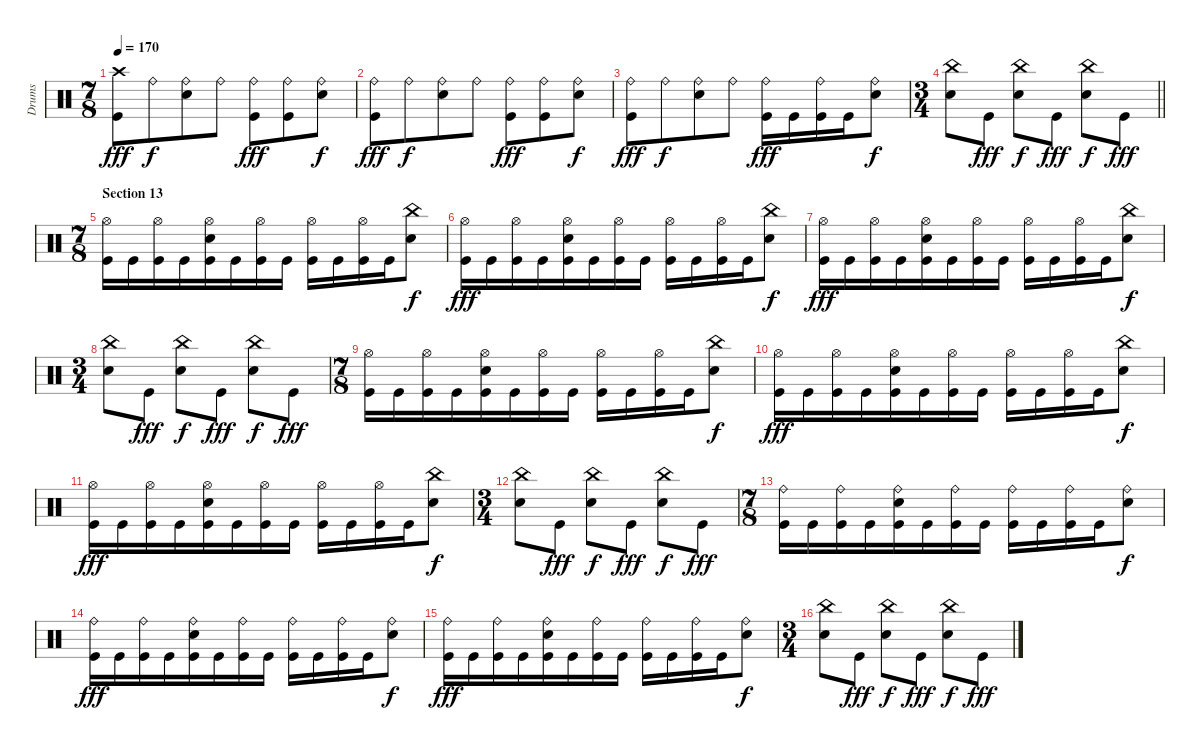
\track ("Drums" "Drums") {instrument percussion}
\staff {score}
\articulation defaults
\ts (7 8)
\tempo 170
\clef neutral
\ks c
("Crash high (hit)" "Kick (hit)").8{dy fff} "Ride (bell)".8{dy f} ("Ride (bell)" "Snare (hit) 2").8 "Ride (bell)".8 ("Ride (bell)" "Kick (hit)").8{dy fff} ("Ride (bell)" "Kick (hit)").8 ("Ride (bell)" "Snare (hit) 2").8{dy f} |
("Ride (bell)" "Kick (hit)").8{dy fff} "Ride (bell)".8{dy f} ("Ride (bell)" "Snare (hit) 2").8 "Ride (bell)".8 ("Ride (bell)" "Kick (hit)").8{dy fff} ("Ride (bell)" "Kick (hit)").8 ("Ride (bell)" "Snare (hit) 2").8{dy f} |
("Ride (bell)" "Kick (hit)").8{dy fff} "Ride (bell)".8{dy f} ("Ride (bell)" "Snare (hit) 2").8 "Ride (bell)".8 ("Ride (bell)" "Kick (hit)").16{dy fff} "Kick (hit)".16 ("Ride (bell)" "Kick (hit)").16 "Kick (hit)".16 ("Ride (bell)" "Snare (hit) 2").8{dy f} |
\ts (3 4)
\barLineRight lightlight
("China (hit)" "Snare (hit) 2").8 "Kick (hit)".8{dy fff} ("China (hit)" "Snare (hit) 2").8{dy f} "Kick (hit)".8{dy fff} ("China (hit)" "Snare (hit) 2").8{dy f} "Kick (hit)".8{dy fff} |
\ts (7 8)
\section ("" "Section 13")
("Hi-Hat (open)" "Kick (hit)").16 "Kick (hit)".16 ("Hi-Hat (open)" "Kick (hit)").16 "Kick (hit)".16 ("Hi-Hat (open)" "Snare (hit) 2" "Kick (hit)").16 "Kick (hit)".16 ("Hi-Hat (open)" "Kick (hit)").16 "Kick (hit)".16 ("Hi-Hat (open)" "Kick (hit)").16 "Kick (hit)".16 ("Hi-Hat (open)" "Kick (hit)").16 "Kick (hit)".16 ("China (hit)" "Snare (hit) 2").8{dy f} |
("Hi-Hat (open)" "Kick (hit)").16{dy fff} "Kick (hit)".16 ("Hi-Hat (open)" "Kick (hit)").16 "Kick (hit)".16 ("Hi-Hat (open)" "Snare (hit) 2" "Kick (hit)").16 "Kick (hit)".16 ("Hi-Hat (open)" "Kick (hit)").16 "Kick (hit)".16 ("Hi-Hat (open)" "Kick (hit)").16 "Kick (hit)".16 ("Hi-Hat (open)" "Kick (hit)").16 "Kick (hit)".16 ("China (hit)" "Snare (hit) 2").8{dy f} |
("Hi-Hat (open)" "Kick (hit)").16{dy fff} "Kick (hit)".16 ("Hi-Hat (open)" "Kick (hit)").16 "Kick (hit)".16 ("Hi-Hat (open)" "Snare (hit) 2" "Kick (hit)").16 "Kick (hit)".16 ("Hi-Hat (open)" "Kick (hit)").16 "Kick (hit)".16 ("Hi-Hat (open)" "Kick (hit)").16 "Kick (hit)".16 ("Hi-Hat (open)" "Kick (hit)").16 "Kick (hit)".16 ("China (hit)" "Snare (hit) 2").8{dy f} |
\ts (3 4)
("China (hit)" "Snare (hit) 2").8 "Kick (hit)".8{dy fff} ("China (hit)" "Snare (hit) 2").8{dy f} "Kick (hit)".8{dy fff} ("China (hit)" "Snare (hit) 2").8{dy f} "Kick (hit)".8{dy fff} |
\ts (7 8)
("Hi-Hat (open)" "Kick (hit)").16 "Kick (hit)".16 ("Hi-Hat (open)" "Kick (hit)").16 "Kick (hit)".16 ("Hi-Hat (open)" "Snare (hit) 2" "Kick (hit)").16 "Kick (hit)".16 ("Hi-Hat (open)" "Kick (hit)").16 "Kick (hit)".16 ("Hi-Hat (open)" "Kick (hit)").16 "Kick (hit)".16 ("Hi-Hat (open)" "Kick (hit)").16 "Kick (hit)".16 ("China (hit)" "Snare (hit) 2").8{dy f} |
("Hi-Hat (open)" "Kick (hit)").16{dy fff} "Kick (hit)".16 ("Hi-Hat (open)" "Kick (hit)").16 "Kick (hit)".16 ("Hi-Hat (open)" "Snare (hit) 2" "Kick (hit)").16 "Kick (hit)".16 ("Hi-Hat (open)" "Kick (hit)").16 "Kick (hit)".16 ("Hi-Hat (open)" "Kick (hit)").16 "Kick (hit)".16 ("Hi-Hat (open)" "Kick (hit)").16 "Kick (hit)".16 ("China (hit)" "Snare (hit) 2").8{dy f} |
("Hi-Hat (open)" "Kick (hit)").16{dy fff} "Kick (hit)".16 ("Hi-Hat (open)" "Kick (hit)").16 "Kick (hit)".16 ("Hi-Hat (open)" "Snare (hit) 2" "Kick (hit)").16 "Kick (hit)".16 ("Hi-Hat (open)" "Kick (hit)").16 "Kick (hit)".16 ("Hi-Hat (open)" "Kick (hit)").16 "Kick (hit)".16 ("Hi-Hat (open)" "Kick (hit)").16 "Kick (hit)".16 ("China (hit)" "Snare (hit) 2").8{dy f} |
\ts (3 4)
("China (hit)" "Snare (hit) 2").8 "Kick (hit)".8{dy fff} ("China (hit)" "Snare (hit) 2").8{dy f} "Kick (hit)".8{dy fff} ("China (hit)" "Snare (hit) 2").8{dy f} "Kick (hit)".8{dy fff} |
\ts (7 8)
("Ride (bell)" "Kick (hit)").16 "Kick (hit)".16 ("Ride (bell)" "Kick (hit)").16 "Kick (hit)".16 ("Ride (bell)" "Snare (hit) 2" "Kick (hit)").16 "Kick (hit)".16 ("Ride (bell)" "Kick (hit)").16 "Kick (hit)".16 ("Ride (bell)" "Kick (hit)").16 "Kick (hit)".16 ("Ride (bell)" "Kick (hit)").16 "Kick (hit)".16 ("Ride (bell)" "Snare (hit) 2").8{dy f} |
("Ride (bell)" "Kick (hit)").16{dy fff} "Kick (hit)".16 ("Ride (bell)" "Kick (hit)").16 "Kick (hit)".16 ("Ride (bell)" "Snare (hit) 2" "Kick (hit)").16 "Kick (hit)".16 ("Ride (bell)" "Kick (hit)").16 "Kick (hit)".16 ("Ride (bell)" "Kick (hit)").16 "Kick (hit)".16 ("Ride (bell)" "Kick (hit)").16 "Kick (hit)".16 ("Ride (bell)" "Snare (hit) 2").8{dy f} |
("Ride (bell)" "Kick (hit)").16{dy fff} "Kick (hit)".16 ("Ride (bell)" "Kick (hit)").16 "Kick (hit)".16 ("Ride (bell)" "Snare (hit) 2" "Kick (hit)").16 "Kick (hit)".16 ("Ride (bell)" "Kick (hit)").16 "Kick (hit)".16 ("Ride (bell)" "Kick (hit)").16 "Kick (hit)".16 ("Ride (bell)" "Kick (hit)").16 "Kick (hit)".16 ("Ride (bell)" "Snare (hit) 2").8{dy f} |
\ts (3 4)
("China (hit)" "Snare (hit) 2").8 "Kick (hit)".8{dy fff} ("China (hit)" "Snare (hit) 2").8{dy f} "Kick (hit)".8{dy fff} ("China (hit)" "Snare (hit) 2").8{dy f} "Kick (hit)".8{dy fff}
